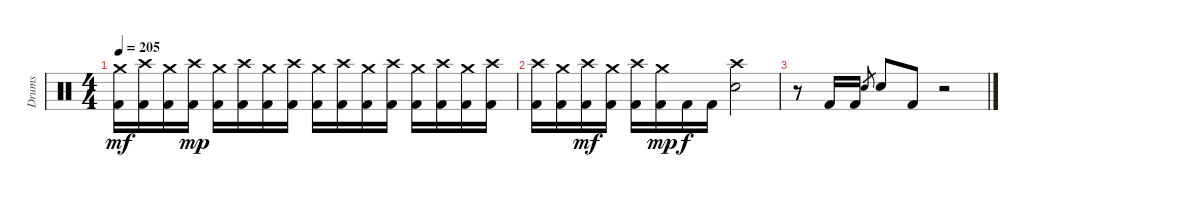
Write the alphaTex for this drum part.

\track ("Drums" "Drums") {instrument percussion}
\staff {score}
\articulation defaults
\ts (4 4)
\tempo 205
\clef neutral
\ks c
("Crash medium (hit)" "Kick (hit) 2").16{dy mf} ("Crash high (hit)" "Kick (hit) 2").16 ("Crash medium (hit)" "Kick (hit) 2").16 ("Crash high (hit)" "Kick (hit) 2").16{dy mp} ("Crash medium (hit)" "Kick (hit) 2").16 ("Crash high (hit)" "Kick (hit) 2").16 ("Crash medium (hit)" "Kick (hit) 2").16 ("Crash high (hit)" "Kick (hit) 2").16 ("Crash medium (hit)" "Kick (hit) 2").16 ("Crash high (hit)" "Kick (hit) 2").16 ("Crash medium (hit)" "Kick (hit) 2").16 ("Crash high (hit)" "Kick (hit) 2").16 ("Crash medium (hit)" "Kick (hit) 2").16 ("Crash high (hit)" "Kick (hit) 2").16 ("Crash medium (hit)" "Kick (hit) 2").16 ("Crash high (hit)" "Kick (hit) 2").16 |
("Crash high (hit)" "Kick (hit) 2").16 ("Crash medium (hit)" "Kick (hit) 2").16 ("Crash high (hit)" "Kick (hit) 2").16{dy mf} ("Crash medium (hit)" "Kick (hit) 2").16 ("Crash high (hit)" "Kick (hit) 2").16 ("Crash medium (hit)" "Kick (hit) 2").16{dy mp} "Kick (hit) 2".16{dy f} "Kick (hit) 2".16 ("Crash high (hit)" "Electric Snare (hit)").2 |
r.8 "Kick (hit) 2".16 "Kick (hit) 2".16 "Electric Snare (hit)".8{gr} "Electric Snare (hit)".8 "Kick (hit) 2".8 r.2
